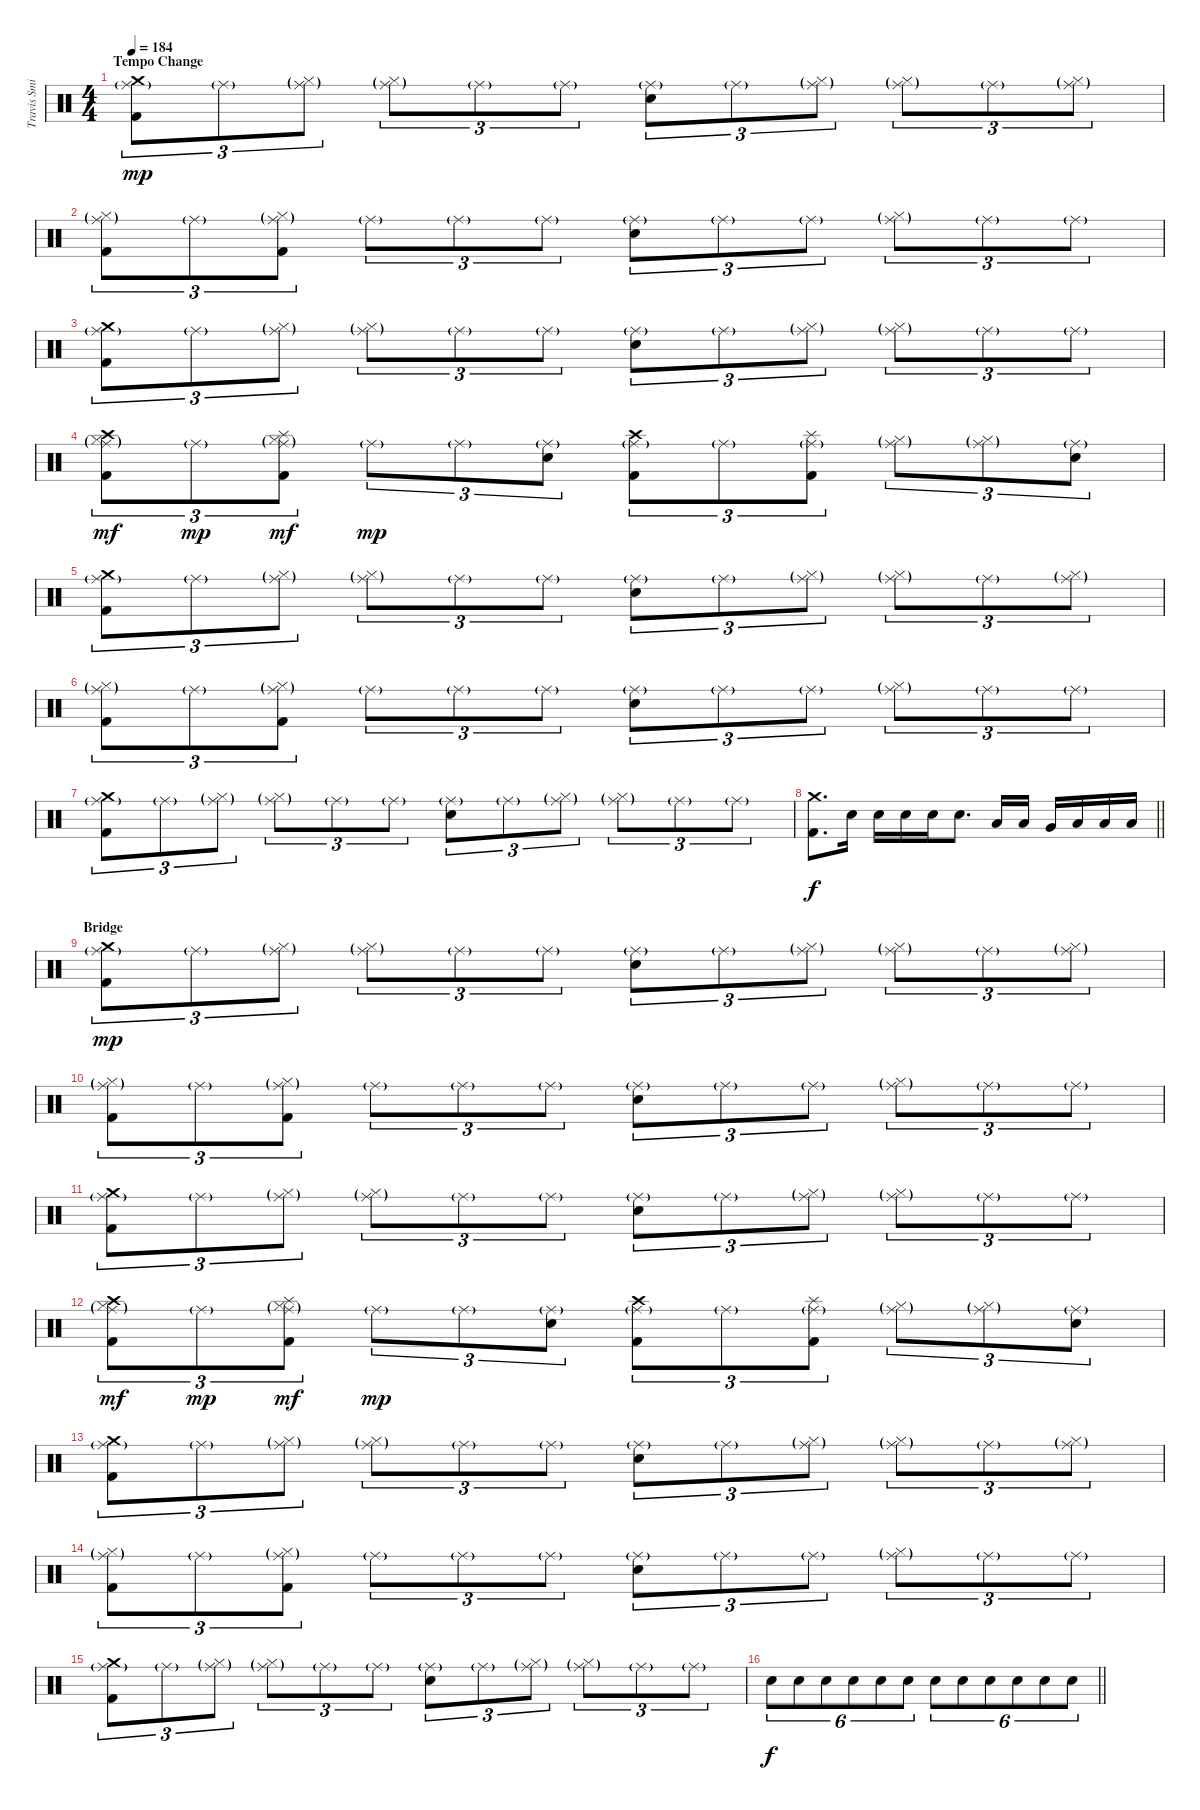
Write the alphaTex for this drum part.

\track ("Travis Smith" "Travis Smi") {instrument percussion}
\staff {score}
\articulation defaults
\ts (4 4)
\section ("" "Tempo Change")
\tempo 184
\clef neutral
\ks c
("Crash medium (hit)" "Ride (middle)"{g} "Kick (hit) 2").8{tu (3 2) dy mp} "Ride (middle)"{g}.8{tu (3 2)} ("Hi-Hat (closed)"{g} "Ride (middle)"{g}).8{tu (3 2)} ("Hi-Hat (closed)"{g} "Ride (middle)"{g}).8{tu (3 2)} "Ride (middle)"{g}.8{tu (3 2)} "Ride (middle)"{g}.8{tu (3 2)} ("Ride (middle)"{g} "Electric Snare (hit)").8{tu (3 2)} "Ride (middle)"{g}.8{tu (3 2)} ("Hi-Hat (closed)"{g} "Ride (middle)"{g}).8{tu (3 2)} ("Hi-Hat (closed)"{g} "Ride (middle)"{g}).8{tu (3 2)} "Ride (middle)"{g}.8{tu (3 2)} ("Hi-Hat (closed)"{g} "Ride (middle)"{g}).8{tu (3 2)} |
("Hi-Hat (closed)"{g} "Ride (middle)"{g} "Kick (hit) 2").8{tu (3 2)} "Ride (middle)"{g}.8{tu (3 2)} ("Hi-Hat (closed)"{g} "Ride (middle)"{g} "Kick (hit) 2").8{tu (3 2)} "Ride (middle)"{g}.8{tu (3 2)} "Ride (middle)"{g}.8{tu (3 2)} "Ride (middle)"{g}.8{tu (3 2)} ("Ride (middle)"{g} "Electric Snare (hit)").8{tu (3 2)} "Ride (middle)"{g}.8{tu (3 2)} "Ride (middle)"{g}.8{tu (3 2)} ("Hi-Hat (closed)"{g} "Ride (middle)"{g}).8{tu (3 2)} "Ride (middle)"{g}.8{tu (3 2)} "Ride (middle)"{g}.8{tu (3 2)} |
("Crash medium (hit)" "Ride (middle)"{g} "Kick (hit) 2").8{tu (3 2)} "Ride (middle)"{g}.8{tu (3 2)} ("Hi-Hat (closed)"{g} "Ride (middle)"{g}).8{tu (3 2)} ("Hi-Hat (closed)"{g} "Ride (middle)"{g}).8{tu (3 2)} "Ride (middle)"{g}.8{tu (3 2)} "Ride (middle)"{g}.8{tu (3 2)} ("Ride (middle)"{g} "Electric Snare (hit)").8{tu (3 2)} "Ride (middle)"{g}.8{tu (3 2)} ("Hi-Hat (closed)"{g} "Ride (middle)"{g}).8{tu (3 2)} ("Hi-Hat (closed)"{g} "Ride (middle)"{g}).8{tu (3 2)} "Ride (middle)"{g}.8{tu (3 2)} "Ride (middle)"{g}.8{tu (3 2)} |
("Crash high (hit)" "Ride (middle)"{g} "Hi-Hat (closed)"{g} "Kick (hit) 2").8{tu (3 2) dy mf} "Ride (middle)"{g}.8{tu (3 2) dy mp} ("Splash (hit)" "Ride (middle)"{g} "Hi-Hat (closed)"{g} "Kick (hit) 2").8{tu (3 2) dy mf} "Ride (middle)"{g}.8{tu (3 2) dy mp} "Ride (middle)"{g}.8{tu (3 2)} ("Ride (middle)"{g} "Electric Snare (hit)").8{tu (3 2)} ("Crash high (hit)" "Ride (middle)"{g} "Kick (hit) 2").8{tu (3 2)} "Ride (middle)"{g}.8{tu (3 2)} ("Splash (hit)" "Ride (middle)"{g} "Kick (hit) 2").8{tu (3 2)} ("Ride (middle)"{g} "Hi-Hat (closed)"{g}).8{tu (3 2)} ("Ride (middle)"{g} "Hi-Hat (closed)"{g}).8{tu (3 2)} ("Ride (middle)"{g} "Electric Snare (hit)").8{tu (3 2)} |
("Crash medium (hit)" "Ride (middle)"{g} "Kick (hit) 2").8{tu (3 2)} "Ride (middle)"{g}.8{tu (3 2)} ("Hi-Hat (closed)"{g} "Ride (middle)"{g}).8{tu (3 2)} ("Hi-Hat (closed)"{g} "Ride (middle)"{g}).8{tu (3 2)} "Ride (middle)"{g}.8{tu (3 2)} "Ride (middle)"{g}.8{tu (3 2)} ("Ride (middle)"{g} "Electric Snare (hit)").8{tu (3 2)} "Ride (middle)"{g}.8{tu (3 2)} ("Hi-Hat (closed)"{g} "Ride (middle)"{g}).8{tu (3 2)} ("Hi-Hat (closed)"{g} "Ride (middle)"{g}).8{tu (3 2)} "Ride (middle)"{g}.8{tu (3 2)} ("Hi-Hat (closed)"{g} "Ride (middle)"{g}).8{tu (3 2)} |
("Hi-Hat (closed)"{g} "Ride (middle)"{g} "Kick (hit) 2").8{tu (3 2)} "Ride (middle)"{g}.8{tu (3 2)} ("Hi-Hat (closed)"{g} "Ride (middle)"{g} "Kick (hit) 2").8{tu (3 2)} "Ride (middle)"{g}.8{tu (3 2)} "Ride (middle)"{g}.8{tu (3 2)} "Ride (middle)"{g}.8{tu (3 2)} ("Ride (middle)"{g} "Electric Snare (hit)").8{tu (3 2)} "Ride (middle)"{g}.8{tu (3 2)} "Ride (middle)"{g}.8{tu (3 2)} ("Hi-Hat (closed)"{g} "Ride (middle)"{g}).8{tu (3 2)} "Ride (middle)"{g}.8{tu (3 2)} "Ride (middle)"{g}.8{tu (3 2)} |
("Crash medium (hit)" "Ride (middle)"{g} "Kick (hit) 2").8{tu (3 2)} "Ride (middle)"{g}.8{tu (3 2)} ("Hi-Hat (closed)"{g} "Ride (middle)"{g}).8{tu (3 2)} ("Hi-Hat (closed)"{g} "Ride (middle)"{g}).8{tu (3 2)} "Ride (middle)"{g}.8{tu (3 2)} "Ride (middle)"{g}.8{tu (3 2)} ("Ride (middle)"{g} "Electric Snare (hit)").8{tu (3 2)} "Ride (middle)"{g}.8{tu (3 2)} ("Hi-Hat (closed)"{g} "Ride (middle)"{g}).8{tu (3 2)} ("Hi-Hat (closed)"{g} "Ride (middle)"{g}).8{tu (3 2)} "Ride (middle)"{g}.8{tu (3 2)} "Ride (middle)"{g}.8{tu (3 2)} |
\barLineRight lightlight
("Crash medium (hit)" "Kick (hit) 2").8{d dy f} "Electric Snare (hit)".16 "Electric Snare (hit)".16 "Electric Snare (hit)".16 "Electric Snare (hit)".16 "Electric Snare (hit)".8{d} "Low Tom (hit)".16 "Low Tom (hit)".16 "Very Low Tom (hit)".16 "Low Floor Tom (hit)".16 "Low Floor Tom (hit)".16 "Low Floor Tom (hit)".16 |
\section ("" "Bridge")
("Crash medium (hit)" "Ride (middle)"{g} "Kick (hit) 2").8{tu (3 2) dy mp} "Ride (middle)"{g}.8{tu (3 2)} ("Hi-Hat (closed)"{g} "Ride (middle)"{g}).8{tu (3 2)} ("Hi-Hat (closed)"{g} "Ride (middle)"{g}).8{tu (3 2)} "Ride (middle)"{g}.8{tu (3 2)} "Ride (middle)"{g}.8{tu (3 2)} ("Ride (middle)"{g} "Electric Snare (hit)").8{tu (3 2)} "Ride (middle)"{g}.8{tu (3 2)} ("Hi-Hat (closed)"{g} "Ride (middle)"{g}).8{tu (3 2)} ("Hi-Hat (closed)"{g} "Ride (middle)"{g}).8{tu (3 2)} "Ride (middle)"{g}.8{tu (3 2)} ("Hi-Hat (closed)"{g} "Ride (middle)"{g}).8{tu (3 2)} |
("Hi-Hat (closed)"{g} "Ride (middle)"{g} "Kick (hit) 2").8{tu (3 2)} "Ride (middle)"{g}.8{tu (3 2)} ("Hi-Hat (closed)"{g} "Ride (middle)"{g} "Kick (hit) 2").8{tu (3 2)} "Ride (middle)"{g}.8{tu (3 2)} "Ride (middle)"{g}.8{tu (3 2)} "Ride (middle)"{g}.8{tu (3 2)} ("Ride (middle)"{g} "Electric Snare (hit)").8{tu (3 2)} "Ride (middle)"{g}.8{tu (3 2)} "Ride (middle)"{g}.8{tu (3 2)} ("Hi-Hat (closed)"{g} "Ride (middle)"{g}).8{tu (3 2)} "Ride (middle)"{g}.8{tu (3 2)} "Ride (middle)"{g}.8{tu (3 2)} |
("Crash medium (hit)" "Ride (middle)"{g} "Kick (hit) 2").8{tu (3 2)} "Ride (middle)"{g}.8{tu (3 2)} ("Hi-Hat (closed)"{g} "Ride (middle)"{g}).8{tu (3 2)} ("Hi-Hat (closed)"{g} "Ride (middle)"{g}).8{tu (3 2)} "Ride (middle)"{g}.8{tu (3 2)} "Ride (middle)"{g}.8{tu (3 2)} ("Ride (middle)"{g} "Electric Snare (hit)").8{tu (3 2)} "Ride (middle)"{g}.8{tu (3 2)} ("Hi-Hat (closed)"{g} "Ride (middle)"{g}).8{tu (3 2)} ("Hi-Hat (closed)"{g} "Ride (middle)"{g}).8{tu (3 2)} "Ride (middle)"{g}.8{tu (3 2)} "Ride (middle)"{g}.8{tu (3 2)} |
("Crash high (hit)" "Ride (middle)"{g} "Hi-Hat (closed)"{g} "Kick (hit) 2").8{tu (3 2) dy mf} "Ride (middle)"{g}.8{tu (3 2) dy mp} ("Splash (hit)" "Ride (middle)"{g} "Hi-Hat (closed)"{g} "Kick (hit) 2").8{tu (3 2) dy mf} "Ride (middle)"{g}.8{tu (3 2) dy mp} "Ride (middle)"{g}.8{tu (3 2)} ("Ride (middle)"{g} "Electric Snare (hit)").8{tu (3 2)} ("Crash high (hit)" "Ride (middle)"{g} "Kick (hit) 2").8{tu (3 2)} "Ride (middle)"{g}.8{tu (3 2)} ("Splash (hit)" "Ride (middle)"{g} "Kick (hit) 2").8{tu (3 2)} ("Ride (middle)"{g} "Hi-Hat (closed)"{g}).8{tu (3 2)} ("Ride (middle)"{g} "Hi-Hat (closed)"{g}).8{tu (3 2)} ("Ride (middle)"{g} "Electric Snare (hit)").8{tu (3 2)} |
("Crash medium (hit)" "Ride (middle)"{g} "Kick (hit) 2").8{tu (3 2)} "Ride (middle)"{g}.8{tu (3 2)} ("Hi-Hat (closed)"{g} "Ride (middle)"{g}).8{tu (3 2)} ("Hi-Hat (closed)"{g} "Ride (middle)"{g}).8{tu (3 2)} "Ride (middle)"{g}.8{tu (3 2)} "Ride (middle)"{g}.8{tu (3 2)} ("Ride (middle)"{g} "Electric Snare (hit)").8{tu (3 2)} "Ride (middle)"{g}.8{tu (3 2)} ("Hi-Hat (closed)"{g} "Ride (middle)"{g}).8{tu (3 2)} ("Hi-Hat (closed)"{g} "Ride (middle)"{g}).8{tu (3 2)} "Ride (middle)"{g}.8{tu (3 2)} ("Hi-Hat (closed)"{g} "Ride (middle)"{g}).8{tu (3 2)} |
("Hi-Hat (closed)"{g} "Ride (middle)"{g} "Kick (hit) 2").8{tu (3 2)} "Ride (middle)"{g}.8{tu (3 2)} ("Hi-Hat (closed)"{g} "Ride (middle)"{g} "Kick (hit) 2").8{tu (3 2)} "Ride (middle)"{g}.8{tu (3 2)} "Ride (middle)"{g}.8{tu (3 2)} "Ride (middle)"{g}.8{tu (3 2)} ("Ride (middle)"{g} "Electric Snare (hit)").8{tu (3 2)} "Ride (middle)"{g}.8{tu (3 2)} "Ride (middle)"{g}.8{tu (3 2)} ("Hi-Hat (closed)"{g} "Ride (middle)"{g}).8{tu (3 2)} "Ride (middle)"{g}.8{tu (3 2)} "Ride (middle)"{g}.8{tu (3 2)} |
("Crash medium (hit)" "Ride (middle)"{g} "Kick (hit) 2").8{tu (3 2)} "Ride (middle)"{g}.8{tu (3 2)} ("Hi-Hat (closed)"{g} "Ride (middle)"{g}).8{tu (3 2)} ("Hi-Hat (closed)"{g} "Ride (middle)"{g}).8{tu (3 2)} "Ride (middle)"{g}.8{tu (3 2)} "Ride (middle)"{g}.8{tu (3 2)} ("Ride (middle)"{g} "Electric Snare (hit)").8{tu (3 2)} "Ride (middle)"{g}.8{tu (3 2)} ("Hi-Hat (closed)"{g} "Ride (middle)"{g}).8{tu (3 2)} ("Hi-Hat (closed)"{g} "Ride (middle)"{g}).8{tu (3 2)} "Ride (middle)"{g}.8{tu (3 2)} "Ride (middle)"{g}.8{tu (3 2)} |
\barLineRight lightlight "Electric Snare (hit)".8{tu (6 4) dy f} "Electric Snare (hit)".8{tu (6 4)} "Electric Snare (hit)".8{tu (6 4)} "Electric Snare (hit)".8{tu (6 4)} "Electric Snare (hit)".8{tu (6 4)} "Electric Snare (hit)".8{tu (6 4)} "Electric Snare (hit)".8{tu (6 4)} "Electric Snare (hit)".8{tu (6 4)} "Electric Snare (hit)".8{tu (6 4)} "Electric Snare (hit)".8{tu (6 4)} "Electric Snare (hit)".8{tu (6 4)} "Electric Snare (hit)".8{tu (6 4)}
